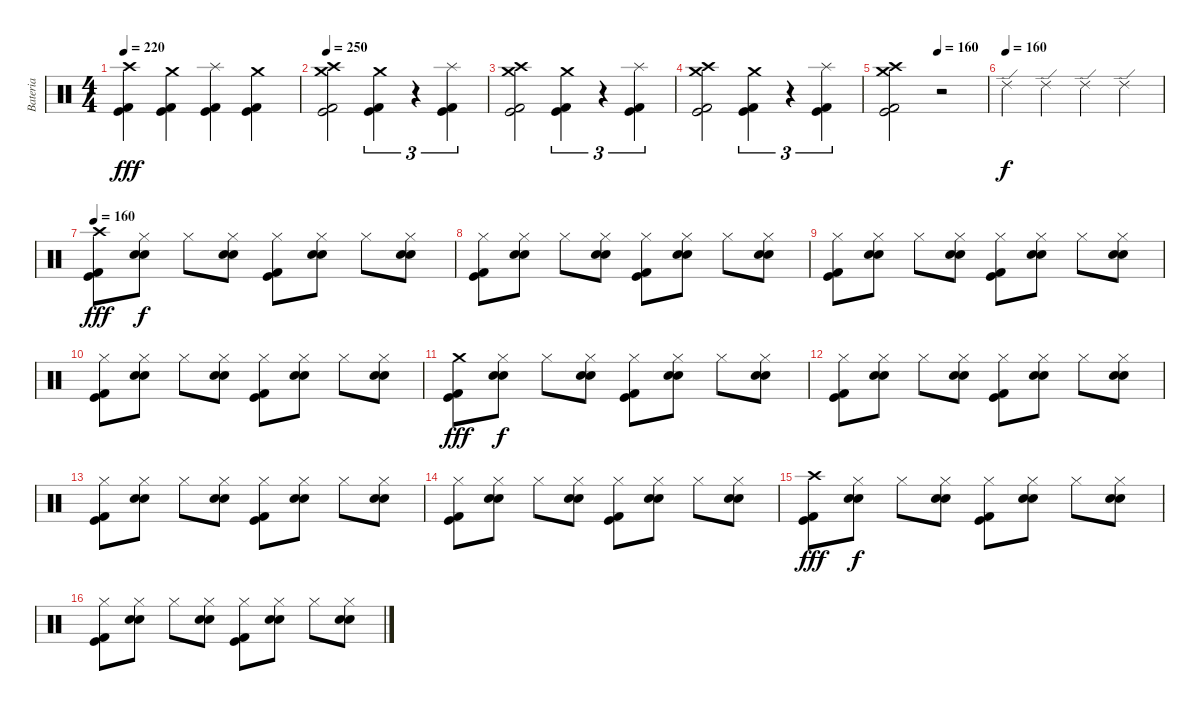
\track ("Bateria" "Bateria") {instrument percussion}
\staff {score}
\articulation defaults
\ts (4 4)
\tempo 220
\clef neutral
\ks c
("Crash high (hit)" "Kick (hit) 2" "Kick (hit)").4{dy fff} ("Crash medium (hit)" "Kick (hit) 2" "Kick (hit)").4 ("Splash (hit)" "Kick (hit) 2" "Kick (hit)").4 ("Crash medium (hit)" "Kick (hit) 2" "Kick (hit)").4 |
\tempo 250
("Crash high (hit)" "Crash medium (hit)" "Kick (hit) 2" "Kick (hit)").2 ("Crash medium (hit)" "Kick (hit) 2" "Kick (hit)").4{tu (3 2)} r.4{tu (3 2)} ("Splash (hit)" "Kick (hit) 2" "Kick (hit)").4{tu (3 2)} |
("Crash high (hit)" "Crash medium (hit)" "Kick (hit) 2" "Kick (hit)").2 ("Crash medium (hit)" "Kick (hit) 2" "Kick (hit)").4{tu (3 2)} r.4{tu (3 2)} ("Splash (hit)" "Kick (hit) 2" "Kick (hit)").4{tu (3 2)} |
("Crash high (hit)" "Crash medium (hit)" "Kick (hit) 2" "Kick (hit)").2 ("Crash medium (hit)" "Kick (hit) 2" "Kick (hit)").4{tu (3 2)} r.4{tu (3 2)} ("Splash (hit)" "Kick (hit) 2" "Kick (hit)").4{tu (3 2)} |
\tempo (160 0.5)
("Crash high (hit)" "Crash medium (hit)" "Kick (hit) 2" "Kick (hit)").2 r.2 |
\tempo (160)
"Ride (edge) 2".4{dy f} "Ride (edge) 2".4 "Ride (edge) 2".4 "Ride (edge) 2".4 |
\tempo 160
("Crash high (hit)" "Kick (hit) 2" "Kick (hit)").8{dy fff} ("Hi-Hat (closed)" "Electric Snare (hit)" "Snare (hit) 2").8{dy f} "Hi-Hat (closed)".8 ("Hi-Hat (closed)" "Electric Snare (hit)" "Snare (hit) 2").8 ("Hi-Hat (closed)" "Kick (hit) 2" "Kick (hit)").8 ("Hi-Hat (closed)" "Electric Snare (hit)" "Snare (hit) 2").8 "Hi-Hat (closed)".8 ("Hi-Hat (closed)" "Electric Snare (hit)" "Snare (hit) 2").8 |
("Hi-Hat (closed)" "Kick (hit) 2" "Kick (hit)").8 ("Hi-Hat (closed)" "Electric Snare (hit)" "Snare (hit) 2").8 "Hi-Hat (closed)".8 ("Hi-Hat (closed)" "Electric Snare (hit)" "Snare (hit) 2").8 ("Hi-Hat (closed)" "Kick (hit) 2" "Kick (hit)").8 ("Hi-Hat (closed)" "Electric Snare (hit)" "Snare (hit) 2").8 "Hi-Hat (closed)".8 ("Hi-Hat (closed)" "Electric Snare (hit)" "Snare (hit) 2").8 |
("Hi-Hat (closed)" "Kick (hit) 2" "Kick (hit)").8 ("Hi-Hat (closed)" "Electric Snare (hit)" "Snare (hit) 2").8 "Hi-Hat (closed)".8 ("Hi-Hat (closed)" "Electric Snare (hit)" "Snare (hit) 2").8 ("Hi-Hat (closed)" "Kick (hit) 2" "Kick (hit)").8 ("Hi-Hat (closed)" "Electric Snare (hit)" "Snare (hit) 2").8 "Hi-Hat (closed)".8 ("Hi-Hat (closed)" "Electric Snare (hit)" "Snare (hit) 2").8 |
("Hi-Hat (closed)" "Kick (hit) 2" "Kick (hit)").8 ("Hi-Hat (closed)" "Electric Snare (hit)" "Snare (hit) 2").8 "Hi-Hat (closed)".8 ("Hi-Hat (closed)" "Electric Snare (hit)" "Snare (hit) 2").8 ("Hi-Hat (closed)" "Kick (hit) 2" "Kick (hit)").8 ("Hi-Hat (closed)" "Electric Snare (hit)" "Snare (hit) 2").8 "Hi-Hat (closed)".8 ("Hi-Hat (closed)" "Electric Snare (hit)" "Snare (hit) 2").8 |
("Crash medium (hit)" "Kick (hit) 2" "Kick (hit)").8{dy fff} ("Hi-Hat (closed)" "Electric Snare (hit)" "Snare (hit) 2").8{dy f} "Hi-Hat (closed)".8 ("Hi-Hat (closed)" "Electric Snare (hit)" "Snare (hit) 2").8 ("Hi-Hat (closed)" "Kick (hit) 2" "Kick (hit)").8 ("Hi-Hat (closed)" "Electric Snare (hit)" "Snare (hit) 2").8 "Hi-Hat (closed)".8 ("Hi-Hat (closed)" "Electric Snare (hit)" "Snare (hit) 2").8 |
("Hi-Hat (closed)" "Kick (hit) 2" "Kick (hit)").8 ("Hi-Hat (closed)" "Electric Snare (hit)" "Snare (hit) 2").8 "Hi-Hat (closed)".8 ("Hi-Hat (closed)" "Electric Snare (hit)" "Snare (hit) 2").8 ("Hi-Hat (closed)" "Kick (hit) 2" "Kick (hit)").8 ("Hi-Hat (closed)" "Electric Snare (hit)" "Snare (hit) 2").8 "Hi-Hat (closed)".8 ("Hi-Hat (closed)" "Electric Snare (hit)" "Snare (hit) 2").8 |
("Hi-Hat (closed)" "Kick (hit) 2" "Kick (hit)").8 ("Hi-Hat (closed)" "Electric Snare (hit)" "Snare (hit) 2").8 "Hi-Hat (closed)".8 ("Hi-Hat (closed)" "Electric Snare (hit)" "Snare (hit) 2").8 ("Hi-Hat (closed)" "Kick (hit) 2" "Kick (hit)").8 ("Hi-Hat (closed)" "Electric Snare (hit)" "Snare (hit) 2").8 "Hi-Hat (closed)".8 ("Hi-Hat (closed)" "Electric Snare (hit)" "Snare (hit) 2").8 |
("Hi-Hat (closed)" "Kick (hit) 2" "Kick (hit)").8 ("Hi-Hat (closed)" "Electric Snare (hit)" "Snare (hit) 2").8 "Hi-Hat (closed)".8 ("Hi-Hat (closed)" "Electric Snare (hit)" "Snare (hit) 2").8 ("Hi-Hat (closed)" "Kick (hit) 2" "Kick (hit)").8 ("Hi-Hat (closed)" "Electric Snare (hit)" "Snare (hit) 2").8 "Hi-Hat (closed)".8 ("Hi-Hat (closed)" "Electric Snare (hit)" "Snare (hit) 2").8 |
("Crash high (hit)" "Kick (hit) 2" "Kick (hit)").8{dy fff} ("Hi-Hat (closed)" "Electric Snare (hit)" "Snare (hit) 2").8{dy f} "Hi-Hat (closed)".8 ("Hi-Hat (closed)" "Electric Snare (hit)" "Snare (hit) 2").8 ("Hi-Hat (closed)" "Kick (hit) 2" "Kick (hit)").8 ("Hi-Hat (closed)" "Electric Snare (hit)" "Snare (hit) 2").8 "Hi-Hat (closed)".8 ("Hi-Hat (closed)" "Electric Snare (hit)" "Snare (hit) 2").8 |
("Hi-Hat (closed)" "Kick (hit) 2" "Kick (hit)").8 ("Hi-Hat (closed)" "Electric Snare (hit)" "Snare (hit) 2").8 "Hi-Hat (closed)".8 ("Hi-Hat (closed)" "Electric Snare (hit)" "Snare (hit) 2").8 ("Hi-Hat (closed)" "Kick (hit) 2" "Kick (hit)").8 ("Hi-Hat (closed)" "Electric Snare (hit)" "Snare (hit) 2").8 "Hi-Hat (closed)".8 ("Hi-Hat (closed)" "Electric Snare (hit)" "Snare (hit) 2").8
